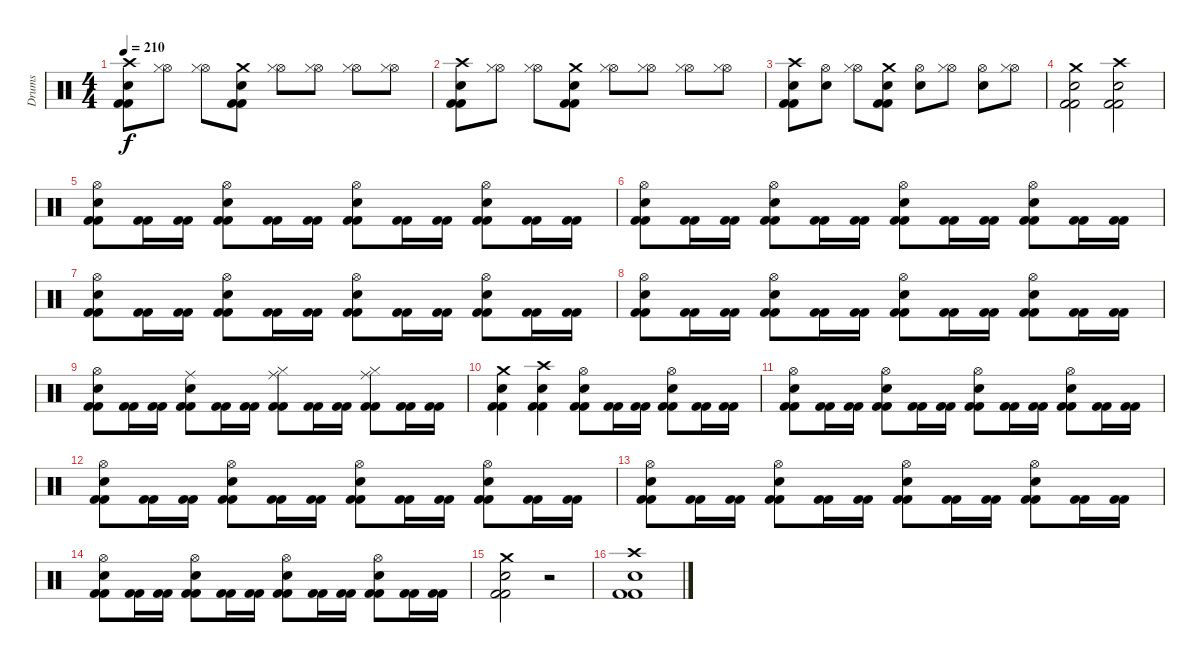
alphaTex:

\track ("Drums" "Drums") {instrument percussion}
\staff {score}
\articulation defaults
\ts (4 4)
\tempo 210
\clef neutral
\ks c
("Crash high (hit)" "Snare (hit) 2" "Kick (hit) 2" "Kick (hit) 2").8{dy f} ("Hi-Hat (open)" "Hi-Hat (closed)").8 ("Hi-Hat (open)" "Hi-Hat (closed)").8 ("Crash medium (hit)" "Snare (hit) 2" "Kick (hit) 2" "Kick (hit) 2").8 ("Hi-Hat (open)" "Hi-Hat (closed)").8 ("Hi-Hat (open)" "Hi-Hat (closed)").8 ("Hi-Hat (open)" "Hi-Hat (closed)").8 ("Hi-Hat (open)" "Hi-Hat (closed)").8 |
("Crash high (hit)" "Snare (hit) 2" "Kick (hit) 2" "Kick (hit) 2").8 ("Hi-Hat (open)" "Hi-Hat (closed)").8 ("Hi-Hat (open)" "Hi-Hat (closed)").8 ("Crash medium (hit)" "Snare (hit) 2" "Kick (hit) 2" "Kick (hit) 2").8 ("Hi-Hat (open)" "Hi-Hat (closed)").8 ("Hi-Hat (open)" "Hi-Hat (closed)").8 ("Hi-Hat (open)" "Hi-Hat (closed)").8 ("Hi-Hat (open)" "Hi-Hat (closed)").8 |
("Crash high (hit)" "Snare (hit) 2" "Kick (hit) 2" "Kick (hit) 2").8 ("Hi-Hat (open)" "Snare (hit) 2").8 ("Hi-Hat (open)" "Hi-Hat (closed)").8 ("Crash medium (hit)" "Snare (hit) 2" "Kick (hit) 2" "Kick (hit) 2").8 ("Hi-Hat (open)" "Snare (hit) 2").8 ("Hi-Hat (open)" "Hi-Hat (closed)").8 ("Hi-Hat (open)" "Snare (hit) 2").8 ("Hi-Hat (open)" "Hi-Hat (closed)").8 |
("Crash medium (hit)" "Snare (hit) 2" "Kick (hit) 2" "Kick (hit) 2").2 ("Crash high (hit)" "Snare (hit) 2" "Kick (hit) 2" "Kick (hit) 2").2 |
("Hi-Hat (open)" "Snare (hit) 2" "Kick (hit) 2" "Kick (hit) 2").8 ("Kick (hit) 2" "Kick (hit) 2").16 ("Kick (hit) 2" "Kick (hit) 2").16 ("Hi-Hat (open)" "Snare (hit) 2" "Kick (hit) 2" "Kick (hit) 2").8 ("Kick (hit) 2" "Kick (hit) 2").16 ("Kick (hit) 2" "Kick (hit) 2").16 ("Hi-Hat (open)" "Snare (hit) 2" "Kick (hit) 2" "Kick (hit) 2").8 ("Kick (hit) 2" "Kick (hit) 2").16 ("Kick (hit) 2" "Kick (hit) 2").16 ("Hi-Hat (open)" "Snare (hit) 2" "Kick (hit) 2" "Kick (hit) 2").8 ("Kick (hit) 2" "Kick (hit) 2").16 ("Kick (hit) 2" "Kick (hit) 2").16 |
("Hi-Hat (open)" "Snare (hit) 2" "Kick (hit) 2" "Kick (hit) 2").8 ("Kick (hit) 2" "Kick (hit) 2").16 ("Kick (hit) 2" "Kick (hit) 2").16 ("Hi-Hat (open)" "Snare (hit) 2" "Kick (hit) 2" "Kick (hit) 2").8 ("Kick (hit) 2" "Kick (hit) 2").16 ("Kick (hit) 2" "Kick (hit) 2").16 ("Hi-Hat (open)" "Snare (hit) 2" "Kick (hit) 2" "Kick (hit) 2").8 ("Kick (hit) 2" "Kick (hit) 2").16 ("Kick (hit) 2" "Kick (hit) 2").16 ("Hi-Hat (open)" "Snare (hit) 2" "Kick (hit) 2" "Kick (hit) 2").8 ("Kick (hit) 2" "Kick (hit) 2").16 ("Kick (hit) 2" "Kick (hit) 2").16 |
("Hi-Hat (open)" "Snare (hit) 2" "Kick (hit) 2" "Kick (hit) 2").8 ("Kick (hit) 2" "Kick (hit) 2").16 ("Kick (hit) 2" "Kick (hit) 2").16 ("Hi-Hat (open)" "Snare (hit) 2" "Kick (hit) 2" "Kick (hit) 2").8 ("Kick (hit) 2" "Kick (hit) 2").16 ("Kick (hit) 2" "Kick (hit) 2").16 ("Hi-Hat (open)" "Snare (hit) 2" "Kick (hit) 2" "Kick (hit) 2").8 ("Kick (hit) 2" "Kick (hit) 2").16 ("Kick (hit) 2" "Kick (hit) 2").16 ("Hi-Hat (open)" "Snare (hit) 2" "Kick (hit) 2" "Kick (hit) 2").8 ("Kick (hit) 2" "Kick (hit) 2").16 ("Kick (hit) 2" "Kick (hit) 2").16 |
("Hi-Hat (open)" "Snare (hit) 2" "Kick (hit) 2" "Kick (hit) 2").8 ("Kick (hit) 2" "Kick (hit) 2").16 ("Kick (hit) 2" "Kick (hit) 2").16 ("Hi-Hat (open)" "Snare (hit) 2" "Kick (hit) 2" "Kick (hit) 2").8 ("Kick (hit) 2" "Kick (hit) 2").16 ("Kick (hit) 2" "Kick (hit) 2").16 ("Hi-Hat (open)" "Snare (hit) 2" "Kick (hit) 2" "Kick (hit) 2").8 ("Kick (hit) 2" "Kick (hit) 2").16 ("Kick (hit) 2" "Kick (hit) 2").16 ("Hi-Hat (open)" "Snare (hit) 2" "Kick (hit) 2" "Kick (hit) 2").8 ("Kick (hit) 2" "Kick (hit) 2").16 ("Kick (hit) 2" "Kick (hit) 2").16 |
("Hi-Hat (open)" "Snare (hit) 2" "Kick (hit) 2" "Kick (hit) 2").8 ("Kick (hit) 2" "Kick (hit) 2").16 ("Kick (hit) 2" "Kick (hit) 2").16 ("Ride (middle)" "Snare (hit) 2" "Kick (hit) 2" "Kick (hit) 2").8 ("Kick (hit) 2" "Kick (hit) 2").16 ("Kick (hit) 2" "Kick (hit) 2").16 ("Ride (middle)" "Hi-Hat (closed)" "Kick (hit) 2" "Kick (hit) 2").8 ("Kick (hit) 2" "Kick (hit) 2").16 ("Kick (hit) 2" "Kick (hit) 2").16 ("Ride (middle)" "Hi-Hat (closed)" "Kick (hit) 2" "Kick (hit) 2").8 ("Kick (hit) 2" "Kick (hit) 2").16 ("Kick (hit) 2" "Kick (hit) 2").16 |
("Crash medium (hit)" "Snare (hit) 2" "Kick (hit) 2" "Kick (hit) 2").4 ("Crash high (hit)" "Snare (hit) 2" "Kick (hit) 2" "Kick (hit) 2").4 ("Hi-Hat (open)" "Snare (hit) 2" "Kick (hit) 2" "Kick (hit) 2").8 ("Kick (hit) 2" "Kick (hit) 2").16 ("Kick (hit) 2" "Kick (hit) 2").16 ("Hi-Hat (open)" "Snare (hit) 2" "Kick (hit) 2" "Kick (hit) 2").8 ("Kick (hit) 2" "Kick (hit) 2").16 ("Kick (hit) 2" "Kick (hit) 2").16 |
("Hi-Hat (open)" "Snare (hit) 2" "Kick (hit) 2" "Kick (hit) 2").8 ("Kick (hit) 2" "Kick (hit) 2").16 ("Kick (hit) 2" "Kick (hit) 2").16 ("Hi-Hat (open)" "Snare (hit) 2" "Kick (hit) 2" "Kick (hit) 2").8 ("Kick (hit) 2" "Kick (hit) 2").16 ("Kick (hit) 2" "Kick (hit) 2").16 ("Hi-Hat (open)" "Snare (hit) 2" "Kick (hit) 2" "Kick (hit) 2").8 ("Kick (hit) 2" "Kick (hit) 2").16 ("Kick (hit) 2" "Kick (hit) 2").16 ("Hi-Hat (open)" "Snare (hit) 2" "Kick (hit) 2" "Kick (hit) 2").8 ("Kick (hit) 2" "Kick (hit) 2").16 ("Kick (hit) 2" "Kick (hit) 2").16 |
("Hi-Hat (open)" "Snare (hit) 2" "Kick (hit) 2" "Kick (hit) 2").8 ("Kick (hit) 2" "Kick (hit) 2").16 ("Kick (hit) 2" "Kick (hit) 2").16 ("Hi-Hat (open)" "Snare (hit) 2" "Kick (hit) 2" "Kick (hit) 2").8 ("Kick (hit) 2" "Kick (hit) 2").16 ("Kick (hit) 2" "Kick (hit) 2").16 ("Hi-Hat (open)" "Snare (hit) 2" "Kick (hit) 2" "Kick (hit) 2").8 ("Kick (hit) 2" "Kick (hit) 2").16 ("Kick (hit) 2" "Kick (hit) 2").16 ("Hi-Hat (open)" "Snare (hit) 2" "Kick (hit) 2" "Kick (hit) 2").8 ("Kick (hit) 2" "Kick (hit) 2").16 ("Kick (hit) 2" "Kick (hit) 2").16 |
("Hi-Hat (open)" "Snare (hit) 2" "Kick (hit) 2" "Kick (hit) 2").8 ("Kick (hit) 2" "Kick (hit) 2").16 ("Kick (hit) 2" "Kick (hit) 2").16 ("Hi-Hat (open)" "Snare (hit) 2" "Kick (hit) 2" "Kick (hit) 2").8 ("Kick (hit) 2" "Kick (hit) 2").16 ("Kick (hit) 2" "Kick (hit) 2").16 ("Hi-Hat (open)" "Snare (hit) 2" "Kick (hit) 2" "Kick (hit) 2").8 ("Kick (hit) 2" "Kick (hit) 2").16 ("Kick (hit) 2" "Kick (hit) 2").16 ("Hi-Hat (open)" "Snare (hit) 2" "Kick (hit) 2" "Kick (hit) 2").8 ("Kick (hit) 2" "Kick (hit) 2").16 ("Kick (hit) 2" "Kick (hit) 2").16 |
("Hi-Hat (open)" "Snare (hit) 2" "Kick (hit) 2" "Kick (hit) 2").8 ("Kick (hit) 2" "Kick (hit) 2").16 ("Kick (hit) 2" "Kick (hit) 2").16 ("Hi-Hat (open)" "Snare (hit) 2" "Kick (hit) 2" "Kick (hit) 2").8 ("Kick (hit) 2" "Kick (hit) 2").16 ("Kick (hit) 2" "Kick (hit) 2").16 ("Hi-Hat (open)" "Snare (hit) 2" "Kick (hit) 2" "Kick (hit) 2").8 ("Kick (hit) 2" "Kick (hit) 2").16 ("Kick (hit) 2" "Kick (hit) 2").16 ("Hi-Hat (open)" "Snare (hit) 2" "Kick (hit) 2" "Kick (hit) 2").8 ("Kick (hit) 2" "Kick (hit) 2").16 ("Kick (hit) 2" "Kick (hit) 2").16 |
("Crash medium (hit)" "Snare (hit) 2" "Kick (hit) 2" "Kick (hit) 2").2 r.2 |
("Crash high (hit)" "Snare (hit) 2" "Kick (hit) 2" "Kick (hit) 2").1
